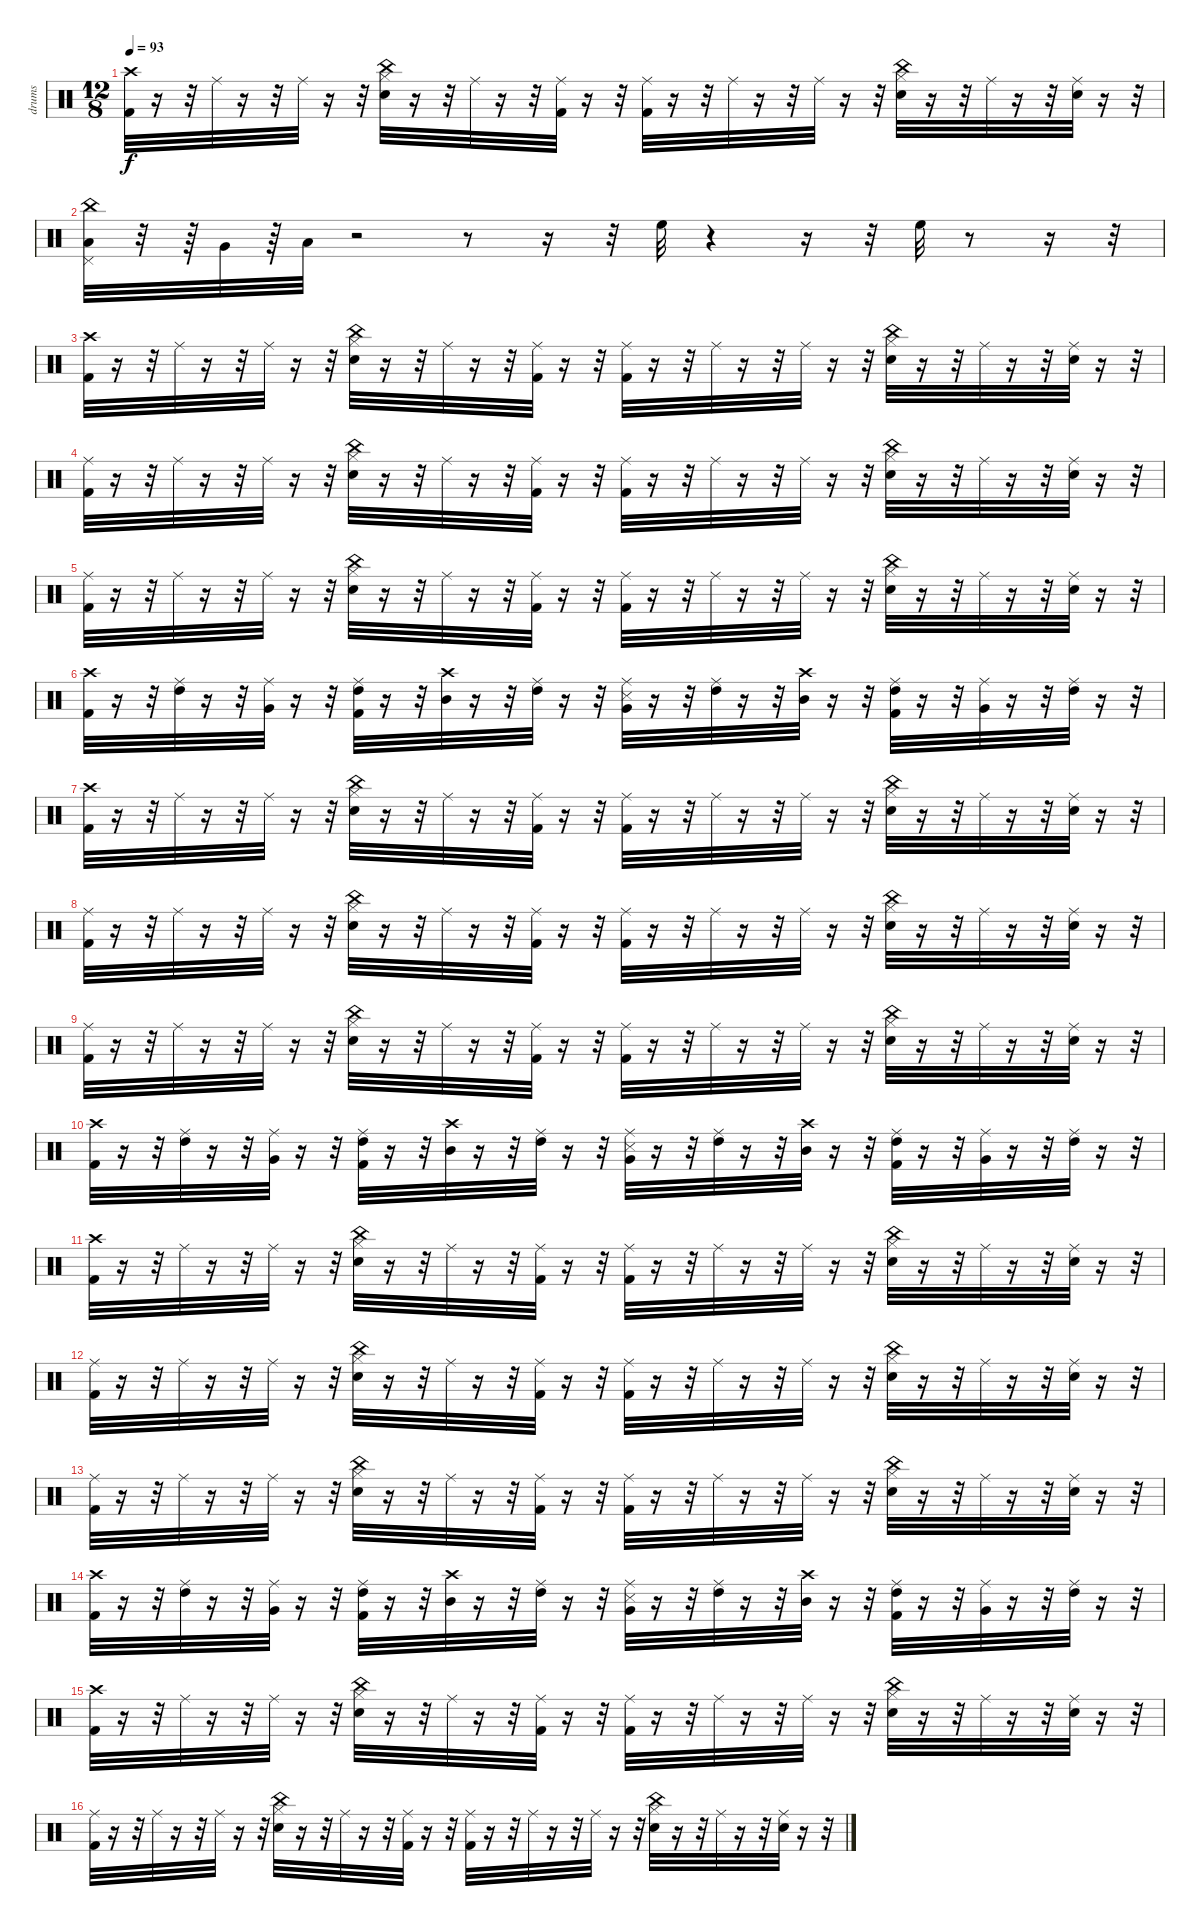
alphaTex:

\track ("drums" "drums") {instrument percussion}
\staff {score}
\articulation defaults
\ts (12 8)
\tempo 93
\clef neutral
\ks c
("Kick (hit) 2" "Crash high (hit)").32{dy f} r.16 r.32 "Ride (middle)".32 r.16 r.32 "Ride (middle)".32 r.16 r.32 ("China (hit)" "Hi-Hat (closed)" "Snare (hit) 2").32 r.16 r.32 "Ride (middle)".32 r.16 r.32 ("Ride (middle)" "Kick (hit) 2").32 r.16 r.32 ("Kick (hit) 2" "Ride (middle)").32 r.16 r.32 "Ride (middle)".32 r.16 r.32 "Ride (middle)".32 r.16 r.32 ("China (hit)" "Hi-Hat (closed)" "Snare (hit) 2").32 r.16 r.32 "Ride (middle)".32 r.16 r.32 ("Ride (middle)" "Snare (hit) 2").32 r.16 r.32 |
("China (hit)" "Pedal Hi-Hat (hit)" "Low Floor Tom (hit)").32 r.32 r.64 "Very Low Tom (hit)".32 r.64 "Low Tom (hit)".32 r.2 r.8 r.16 r.32 "High Floor Tom (hit)".32 r.4 r.16 r.32 "High Floor Tom (hit)".32 r.8 r.16 r.32 |
("Kick (hit) 2" "Crash high (hit)").32 r.16 r.32 "Ride (middle)".32 r.16 r.32 "Ride (middle)".32 r.16 r.32 ("China (hit)" "Hi-Hat (closed)" "Snare (hit) 2").32 r.16 r.32 "Ride (middle)".32 r.16 r.32 ("Ride (middle)" "Kick (hit) 2").32 r.16 r.32 ("Kick (hit) 2" "Ride (middle)").32 r.16 r.32 "Ride (middle)".32 r.16 r.32 "Ride (middle)".32 r.16 r.32 ("China (hit)" "Hi-Hat (closed)" "Snare (hit) 2").32 r.16 r.32 "Ride (middle)".32 r.16 r.32 ("Ride (middle)" "Snare (hit) 2").32 r.16 r.32 |
("Kick (hit) 2" "Ride (middle)").32 r.16 r.32 "Ride (middle)".32 r.16 r.32 "Ride (middle)".32 r.16 r.32 ("China (hit)" "Hi-Hat (closed)" "Snare (hit) 2").32 r.16 r.32 "Ride (middle)".32 r.16 r.32 ("Ride (middle)" "Kick (hit) 2").32 r.16 r.32 ("Kick (hit) 2" "Ride (middle)").32 r.16 r.32 "Ride (middle)".32 r.16 r.32 "Ride (middle)".32 r.16 r.32 ("China (hit)" "Hi-Hat (closed)" "Snare (hit) 2").32 r.16 r.32 "Ride (middle)".32 r.16 r.32 ("Ride (middle)" "Snare (hit) 2").32 r.16 r.32 |
("Kick (hit) 2" "Ride (middle)").32 r.16 r.32 "Ride (middle)".32 r.16 r.32 "Ride (middle)".32 r.16 r.32 ("China (hit)" "Hi-Hat (closed)" "Snare (hit) 2").32 r.16 r.32 "Ride (middle)".32 r.16 r.32 ("Ride (middle)" "Kick (hit) 2").32 r.16 r.32 ("Kick (hit) 2" "Ride (middle)").32 r.16 r.32 "Ride (middle)".32 r.16 r.32 "Ride (middle)".32 r.16 r.32 ("China (hit)" "Hi-Hat (closed)" "Snare (hit) 2").32 r.16 r.32 "Ride (middle)".32 r.16 r.32 ("Ride (middle)" "Snare (hit) 2").32 r.16 r.32 |
("Kick (hit) 2" "Crash high (hit)").32 r.16 r.32 ("Ride (middle)" "High Tom (hit)").32 r.16 r.32 ("Very Low Tom (hit)" "Ride (middle)").32 r.16 r.32 ("Ride (middle)" "Kick (hit) 2" "High Tom (hit)").32 r.16 r.32 ("Mid Tom (hit)" "Crash high (hit)").32 r.16 r.32 ("Ride (middle)" "High Tom (hit)").32 r.16 r.32 ("Very Low Tom (hit)" "Snare (side stick) 3" "Ride (middle)").32 r.16 r.32 ("Ride (middle)" "High Tom (hit)").32 r.16 r.32 ("Mid Tom (hit)" "Crash high (hit)").32 r.16 r.32 ("Ride (middle)" "Kick (hit) 2" "High Tom (hit)").32 r.16 r.32 ("Very Low Tom (hit)" "Ride (middle)").32 r.16 r.32 ("Ride (middle)" "High Tom (hit)").32 r.16 r.32 |
("Kick (hit) 2" "Crash high (hit)").32 r.16 r.32 "Ride (middle)".32 r.16 r.32 "Ride (middle)".32 r.16 r.32 ("China (hit)" "Hi-Hat (closed)" "Snare (hit) 2").32 r.16 r.32 "Ride (middle)".32 r.16 r.32 ("Ride (middle)" "Kick (hit) 2").32 r.16 r.32 ("Kick (hit) 2" "Ride (middle)").32 r.16 r.32 "Ride (middle)".32 r.16 r.32 "Ride (middle)".32 r.16 r.32 ("China (hit)" "Hi-Hat (closed)" "Snare (hit) 2").32 r.16 r.32 "Ride (middle)".32 r.16 r.32 ("Ride (middle)" "Snare (hit) 2").32 r.16 r.32 |
("Kick (hit) 2" "Ride (middle)").32 r.16 r.32 "Ride (middle)".32 r.16 r.32 "Ride (middle)".32 r.16 r.32 ("China (hit)" "Hi-Hat (closed)" "Snare (hit) 2").32 r.16 r.32 "Ride (middle)".32 r.16 r.32 ("Ride (middle)" "Kick (hit) 2").32 r.16 r.32 ("Kick (hit) 2" "Ride (middle)").32 r.16 r.32 "Ride (middle)".32 r.16 r.32 "Ride (middle)".32 r.16 r.32 ("China (hit)" "Hi-Hat (closed)" "Snare (hit) 2").32 r.16 r.32 "Ride (middle)".32 r.16 r.32 ("Ride (middle)" "Snare (hit) 2").32 r.16 r.32 |
("Kick (hit) 2" "Ride (middle)").32 r.16 r.32 "Ride (middle)".32 r.16 r.32 "Ride (middle)".32 r.16 r.32 ("China (hit)" "Hi-Hat (closed)" "Snare (hit) 2").32 r.16 r.32 "Ride (middle)".32 r.16 r.32 ("Ride (middle)" "Kick (hit) 2").32 r.16 r.32 ("Kick (hit) 2" "Ride (middle)").32 r.16 r.32 "Ride (middle)".32 r.16 r.32 "Ride (middle)".32 r.16 r.32 ("China (hit)" "Hi-Hat (closed)" "Snare (hit) 2").32 r.16 r.32 "Ride (middle)".32 r.16 r.32 ("Ride (middle)" "Snare (hit) 2").32 r.16 r.32 |
("Kick (hit) 2" "Crash high (hit)").32 r.16 r.32 ("Ride (middle)" "High Tom (hit)").32 r.16 r.32 ("Very Low Tom (hit)" "Ride (middle)").32 r.16 r.32 ("Ride (middle)" "Kick (hit) 2" "High Tom (hit)").32 r.16 r.32 ("Mid Tom (hit)" "Crash high (hit)").32 r.16 r.32 ("Ride (middle)" "High Tom (hit)").32 r.16 r.32 ("Very Low Tom (hit)" "Snare (side stick) 3" "Ride (middle)").32 r.16 r.32 ("Ride (middle)" "High Tom (hit)").32 r.16 r.32 ("Mid Tom (hit)" "Crash high (hit)").32 r.16 r.32 ("Ride (middle)" "Kick (hit) 2" "High Tom (hit)").32 r.16 r.32 ("Very Low Tom (hit)" "Ride (middle)").32 r.16 r.32 ("Ride (middle)" "High Tom (hit)").32 r.16 r.32 |
("Kick (hit) 2" "Crash high (hit)").32 r.16 r.32 "Ride (middle)".32 r.16 r.32 "Ride (middle)".32 r.16 r.32 ("China (hit)" "Hi-Hat (closed)" "Snare (hit) 2").32 r.16 r.32 "Ride (middle)".32 r.16 r.32 ("Ride (middle)" "Kick (hit) 2").32 r.16 r.32 ("Kick (hit) 2" "Ride (middle)").32 r.16 r.32 "Ride (middle)".32 r.16 r.32 "Ride (middle)".32 r.16 r.32 ("China (hit)" "Hi-Hat (closed)" "Snare (hit) 2").32 r.16 r.32 "Ride (middle)".32 r.16 r.32 ("Ride (middle)" "Snare (hit) 2").32 r.16 r.32 |
("Kick (hit) 2" "Ride (middle)").32 r.16 r.32 "Ride (middle)".32 r.16 r.32 "Ride (middle)".32 r.16 r.32 ("China (hit)" "Hi-Hat (closed)" "Snare (hit) 2").32 r.16 r.32 "Ride (middle)".32 r.16 r.32 ("Ride (middle)" "Kick (hit) 2").32 r.16 r.32 ("Kick (hit) 2" "Ride (middle)").32 r.16 r.32 "Ride (middle)".32 r.16 r.32 "Ride (middle)".32 r.16 r.32 ("China (hit)" "Hi-Hat (closed)" "Snare (hit) 2").32 r.16 r.32 "Ride (middle)".32 r.16 r.32 ("Ride (middle)" "Snare (hit) 2").32 r.16 r.32 |
("Kick (hit) 2" "Ride (middle)").32 r.16 r.32 "Ride (middle)".32 r.16 r.32 "Ride (middle)".32 r.16 r.32 ("China (hit)" "Hi-Hat (closed)" "Snare (hit) 2").32 r.16 r.32 "Ride (middle)".32 r.16 r.32 ("Ride (middle)" "Kick (hit) 2").32 r.16 r.32 ("Kick (hit) 2" "Ride (middle)").32 r.16 r.32 "Ride (middle)".32 r.16 r.32 "Ride (middle)".32 r.16 r.32 ("China (hit)" "Hi-Hat (closed)" "Snare (hit) 2").32 r.16 r.32 "Ride (middle)".32 r.16 r.32 ("Ride (middle)" "Snare (hit) 2").32 r.16 r.32 |
("Kick (hit) 2" "Crash high (hit)").32 r.16 r.32 ("Ride (middle)" "High Tom (hit)").32 r.16 r.32 ("Very Low Tom (hit)" "Ride (middle)").32 r.16 r.32 ("Ride (middle)" "Kick (hit) 2" "High Tom (hit)").32 r.16 r.32 ("Mid Tom (hit)" "Crash high (hit)").32 r.16 r.32 ("Ride (middle)" "High Tom (hit)").32 r.16 r.32 ("Very Low Tom (hit)" "Snare (side stick) 3" "Ride (middle)").32 r.16 r.32 ("Ride (middle)" "High Tom (hit)").32 r.16 r.32 ("Mid Tom (hit)" "Crash high (hit)").32 r.16 r.32 ("Ride (middle)" "Kick (hit) 2" "High Tom (hit)").32 r.16 r.32 ("Very Low Tom (hit)" "Ride (middle)").32 r.16 r.32 ("Ride (middle)" "High Tom (hit)").32 r.16 r.32 |
("Kick (hit) 2" "Crash high (hit)").32 r.16 r.32 "Ride (middle)".32 r.16 r.32 "Ride (middle)".32 r.16 r.32 ("China (hit)" "Hi-Hat (closed)" "Snare (hit) 2").32 r.16 r.32 "Ride (middle)".32 r.16 r.32 ("Ride (middle)" "Kick (hit) 2").32 r.16 r.32 ("Kick (hit) 2" "Ride (middle)").32 r.16 r.32 "Ride (middle)".32 r.16 r.32 "Ride (middle)".32 r.16 r.32 ("China (hit)" "Hi-Hat (closed)" "Snare (hit) 2").32 r.16 r.32 "Ride (middle)".32 r.16 r.32 ("Ride (middle)" "Snare (hit) 2").32 r.16 r.32 |
("Kick (hit) 2" "Ride (middle)").32 r.16 r.32 "Ride (middle)".32 r.16 r.32 "Ride (middle)".32 r.16 r.32 ("China (hit)" "Hi-Hat (closed)" "Snare (hit) 2").32 r.16 r.32 "Ride (middle)".32 r.16 r.32 ("Ride (middle)" "Kick (hit) 2").32 r.16 r.32 ("Kick (hit) 2" "Ride (middle)").32 r.16 r.32 "Ride (middle)".32 r.16 r.32 "Ride (middle)".32 r.16 r.32 ("China (hit)" "Hi-Hat (closed)" "Snare (hit) 2").32 r.16 r.32 "Ride (middle)".32 r.16 r.32 ("Ride (middle)" "Snare (hit) 2").32 r.16 r.32
